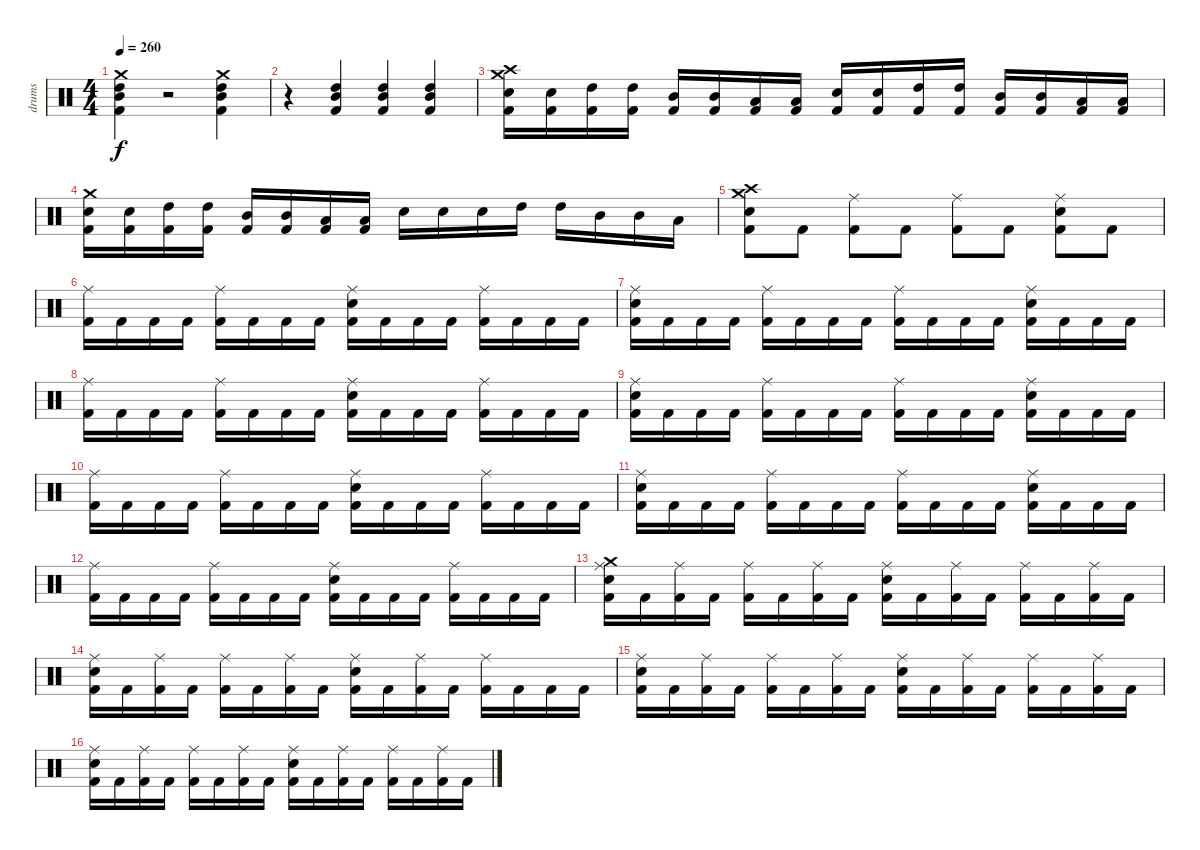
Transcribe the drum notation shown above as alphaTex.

\track ("drums" "drums") {instrument percussion}
\staff {score}
\articulation defaults
\ts (4 4)
\tempo 260
\clef neutral
\ks c
("Crash medium (hit)" "Mid Tom (hit)" "High Tom (hit)" "Kick (hit) 2").4{dy f} r.2 ("Crash medium (hit)" "Mid Tom (hit)" "High Tom (hit)" "Kick (hit) 2").4 |
r.4 ("Mid Tom (hit)" "High Tom (hit)" "Kick (hit) 2").4 ("Mid Tom (hit)" "High Tom (hit)" "Kick (hit) 2").4 ("Mid Tom (hit)" "High Tom (hit)" "Kick (hit) 2").4 |
("Crash medium (hit)" "Crash high (hit)" "Electric Snare (hit)" "Kick (hit) 2").16 ("Electric Snare (hit)" "Kick (hit) 2").16 ("High Tom (hit)" "Kick (hit) 2").16 ("High Tom (hit)" "Kick (hit) 2").16 ("Mid Tom (hit)" "Kick (hit) 2").16 ("Mid Tom (hit)" "Kick (hit) 2").16 ("Low Tom (hit)" "Kick (hit) 2").16 ("Low Tom (hit)" "Kick (hit) 2").16 ("Electric Snare (hit)" "Kick (hit) 2").16 ("Electric Snare (hit)" "Kick (hit) 2").16 ("High Tom (hit)" "Kick (hit) 2").16 ("High Tom (hit)" "Kick (hit) 2").16 ("Mid Tom (hit)" "Kick (hit) 2").16 ("Mid Tom (hit)" "Kick (hit) 2").16 ("Low Tom (hit)" "Kick (hit) 2").16 ("Low Tom (hit)" "Kick (hit) 2").16 |
("Crash medium (hit)" "Electric Snare (hit)" "Kick (hit) 2").16 ("Electric Snare (hit)" "Kick (hit) 2").16 ("High Tom (hit)" "Kick (hit) 2").16 ("High Tom (hit)" "Kick (hit) 2").16 ("Mid Tom (hit)" "Kick (hit) 2").16 ("Mid Tom (hit)" "Kick (hit) 2").16 ("Low Tom (hit)" "Kick (hit) 2").16 ("Low Tom (hit)" "Kick (hit) 2").16 "Electric Snare (hit)".16 "Electric Snare (hit)".16 "Electric Snare (hit)".16 "High Tom (hit)".16 "High Tom (hit)".16 "Mid Tom (hit)".16 "Mid Tom (hit)".16 "Low Tom (hit)".16 |
("Crash medium (hit)" "Crash high (hit)" "Electric Snare (hit)" "Kick (hit) 2").8 "Kick (hit) 2".8 ("Ride (middle)" "Kick (hit) 2").8 "Kick (hit) 2".8 ("Ride (middle)" "Kick (hit) 2").8 "Kick (hit) 2".8 ("Ride (middle)" "Electric Snare (hit)" "Kick (hit) 2").8 "Kick (hit) 2".8 |
("Ride (middle)" "Kick (hit) 2").16 "Kick (hit) 2".16 "Kick (hit) 2".16 "Kick (hit) 2".16 ("Ride (middle)" "Kick (hit) 2").16 "Kick (hit) 2".16 "Kick (hit) 2".16 "Kick (hit) 2".16 ("Ride (middle)" "Electric Snare (hit)" "Kick (hit) 2").16 "Kick (hit) 2".16 "Kick (hit) 2".16 "Kick (hit) 2".16 ("Ride (middle)" "Kick (hit) 2").16 "Kick (hit) 2".16 "Kick (hit) 2".16 "Kick (hit) 2".16 |
("Ride (middle)" "Electric Snare (hit)" "Kick (hit) 2").16 "Kick (hit) 2".16 "Kick (hit) 2".16 "Kick (hit) 2".16 ("Ride (middle)" "Kick (hit) 2").16 "Kick (hit) 2".16 "Kick (hit) 2".16 "Kick (hit) 2".16 ("Ride (middle)" "Kick (hit) 2").16 "Kick (hit) 2".16 "Kick (hit) 2".16 "Kick (hit) 2".16 ("Ride (middle)" "Electric Snare (hit)" "Kick (hit) 2").16 "Kick (hit) 2".16 "Kick (hit) 2".16 "Kick (hit) 2".16 |
("Ride (middle)" "Kick (hit) 2").16 "Kick (hit) 2".16 "Kick (hit) 2".16 "Kick (hit) 2".16 ("Ride (middle)" "Kick (hit) 2").16 "Kick (hit) 2".16 "Kick (hit) 2".16 "Kick (hit) 2".16 ("Ride (middle)" "Electric Snare (hit)" "Kick (hit) 2").16 "Kick (hit) 2".16 "Kick (hit) 2".16 "Kick (hit) 2".16 ("Ride (middle)" "Kick (hit) 2").16 "Kick (hit) 2".16 "Kick (hit) 2".16 "Kick (hit) 2".16 |
("Ride (middle)" "Electric Snare (hit)" "Kick (hit) 2").16 "Kick (hit) 2".16 "Kick (hit) 2".16 "Kick (hit) 2".16 ("Ride (middle)" "Kick (hit) 2").16 "Kick (hit) 2".16 "Kick (hit) 2".16 "Kick (hit) 2".16 ("Ride (middle)" "Kick (hit) 2").16 "Kick (hit) 2".16 "Kick (hit) 2".16 "Kick (hit) 2".16 ("Ride (middle)" "Electric Snare (hit)" "Kick (hit) 2").16 "Kick (hit) 2".16 "Kick (hit) 2".16 "Kick (hit) 2".16 |
("Ride (middle)" "Kick (hit) 2").16 "Kick (hit) 2".16 "Kick (hit) 2".16 "Kick (hit) 2".16 ("Ride (middle)" "Kick (hit) 2").16 "Kick (hit) 2".16 "Kick (hit) 2".16 "Kick (hit) 2".16 ("Ride (middle)" "Electric Snare (hit)" "Kick (hit) 2").16 "Kick (hit) 2".16 "Kick (hit) 2".16 "Kick (hit) 2".16 ("Ride (middle)" "Kick (hit) 2").16 "Kick (hit) 2".16 "Kick (hit) 2".16 "Kick (hit) 2".16 |
("Ride (middle)" "Electric Snare (hit)" "Kick (hit) 2").16 "Kick (hit) 2".16 "Kick (hit) 2".16 "Kick (hit) 2".16 ("Ride (middle)" "Kick (hit) 2").16 "Kick (hit) 2".16 "Kick (hit) 2".16 "Kick (hit) 2".16 ("Ride (middle)" "Kick (hit) 2").16 "Kick (hit) 2".16 "Kick (hit) 2".16 "Kick (hit) 2".16 ("Ride (middle)" "Electric Snare (hit)" "Kick (hit) 2").16 "Kick (hit) 2".16 "Kick (hit) 2".16 "Kick (hit) 2".16 |
("Ride (middle)" "Kick (hit) 2").16 "Kick (hit) 2".16 "Kick (hit) 2".16 "Kick (hit) 2".16 ("Ride (middle)" "Kick (hit) 2").16 "Kick (hit) 2".16 "Kick (hit) 2".16 "Kick (hit) 2".16 ("Ride (middle)" "Electric Snare (hit)" "Kick (hit) 2").16 "Kick (hit) 2".16 "Kick (hit) 2".16 "Kick (hit) 2".16 ("Ride (middle)" "Kick (hit) 2").16 "Kick (hit) 2".16 "Kick (hit) 2".16 "Kick (hit) 2".16 |
("Crash medium (hit)" "Ride (middle)" "Electric Snare (hit)" "Kick (hit) 2").16 "Kick (hit) 2".16 ("Ride (middle)" "Kick (hit) 2").16 "Kick (hit) 2".16 ("Ride (middle)" "Kick (hit) 2").16 "Kick (hit) 2".16 ("Ride (middle)" "Kick (hit) 2").16 "Kick (hit) 2".16 ("Ride (middle)" "Electric Snare (hit)" "Kick (hit) 2").16 "Kick (hit) 2".16 ("Ride (middle)" "Kick (hit) 2").16 "Kick (hit) 2".16 ("Ride (middle)" "Kick (hit) 2").16 "Kick (hit) 2".16 ("Ride (middle)" "Kick (hit) 2").16 "Kick (hit) 2".16 |
("Ride (middle)" "Electric Snare (hit)" "Kick (hit) 2").16 "Kick (hit) 2".16 ("Ride (middle)" "Kick (hit) 2").16 "Kick (hit) 2".16 ("Ride (middle)" "Kick (hit) 2").16 "Kick (hit) 2".16 ("Ride (middle)" "Kick (hit) 2").16 "Kick (hit) 2".16 ("Ride (middle)" "Electric Snare (hit)" "Kick (hit) 2").16 "Kick (hit) 2".16 ("Ride (middle)" "Kick (hit) 2").16 "Kick (hit) 2".16 ("Ride (middle)" "Kick (hit) 2").16 "Kick (hit) 2".16 "Kick (hit) 2".16 "Kick (hit) 2".16 |
("Ride (middle)" "Electric Snare (hit)" "Kick (hit) 2").16 "Kick (hit) 2".16 ("Ride (middle)" "Kick (hit) 2").16 "Kick (hit) 2".16 ("Ride (middle)" "Kick (hit) 2").16 "Kick (hit) 2".16 ("Ride (middle)" "Kick (hit) 2").16 "Kick (hit) 2".16 ("Ride (middle)" "Electric Snare (hit)" "Kick (hit) 2").16 "Kick (hit) 2".16 ("Ride (middle)" "Kick (hit) 2").16 "Kick (hit) 2".16 ("Ride (middle)" "Kick (hit) 2").16 "Kick (hit) 2".16 ("Ride (middle)" "Kick (hit) 2").16 "Kick (hit) 2".16 |
("Ride (middle)" "Electric Snare (hit)" "Kick (hit) 2").16 "Kick (hit) 2".16 ("Ride (middle)" "Kick (hit) 2").16 "Kick (hit) 2".16 ("Ride (middle)" "Kick (hit) 2").16 "Kick (hit) 2".16 ("Ride (middle)" "Kick (hit) 2").16 "Kick (hit) 2".16 ("Ride (middle)" "Electric Snare (hit)" "Kick (hit) 2").16 "Kick (hit) 2".16 ("Ride (middle)" "Kick (hit) 2").16 "Kick (hit) 2".16 ("Ride (middle)" "Kick (hit) 2").16 "Kick (hit) 2".16 ("Ride (middle)" "Kick (hit) 2").16 "Kick (hit) 2".16
